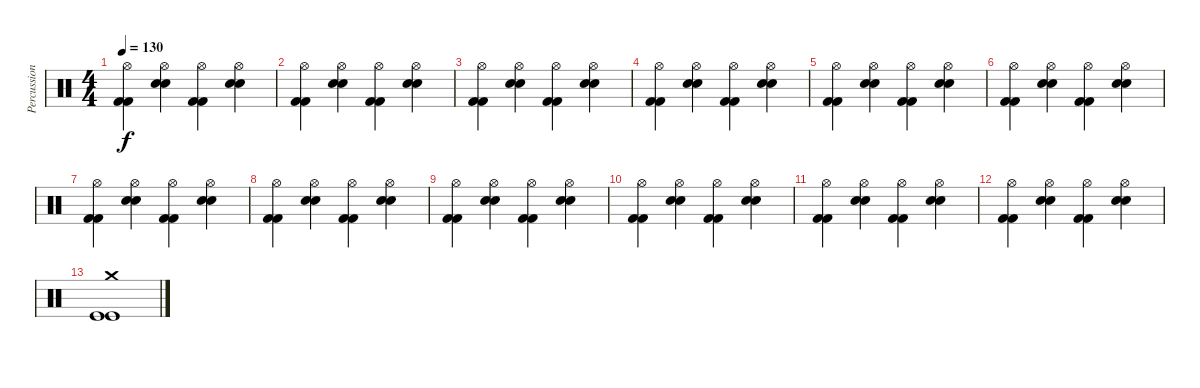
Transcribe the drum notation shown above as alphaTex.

\track ("Percussion" "Percussion") {instrument percussion}
\staff {score}
\articulation defaults
\ts (4 4)
\tempo 130
\clef neutral
\ks c
("Hi-Hat (open)" "Kick (hit) 2" "Kick (hit) 2").4{dy f} ("Hi-Hat (open)" "Snare (hit) 2" "Snare (hit) 2").4 ("Hi-Hat (open)" "Kick (hit) 2" "Kick (hit) 2").4 ("Hi-Hat (open)" "Snare (hit) 2" "Snare (hit) 2").4 |
("Hi-Hat (open)" "Kick (hit) 2" "Kick (hit) 2").4 ("Hi-Hat (open)" "Snare (hit) 2" "Snare (hit) 2").4 ("Hi-Hat (open)" "Kick (hit) 2" "Kick (hit) 2").4 ("Hi-Hat (open)" "Snare (hit) 2" "Snare (hit) 2").4 |
("Hi-Hat (open)" "Kick (hit) 2" "Kick (hit) 2").4 ("Hi-Hat (open)" "Snare (hit) 2" "Snare (hit) 2").4 ("Hi-Hat (open)" "Kick (hit) 2" "Kick (hit) 2").4 ("Hi-Hat (open)" "Snare (hit) 2" "Snare (hit) 2").4 |
("Hi-Hat (open)" "Kick (hit) 2" "Kick (hit) 2").4 ("Hi-Hat (open)" "Snare (hit) 2" "Snare (hit) 2").4 ("Hi-Hat (open)" "Kick (hit) 2" "Kick (hit) 2").4 ("Hi-Hat (open)" "Snare (hit) 2" "Snare (hit) 2").4 |
("Hi-Hat (open)" "Kick (hit) 2" "Kick (hit) 2").4 ("Hi-Hat (open)" "Snare (hit) 2" "Snare (hit) 2").4 ("Hi-Hat (open)" "Kick (hit) 2" "Kick (hit) 2").4 ("Hi-Hat (open)" "Snare (hit) 2" "Snare (hit) 2").4 |
("Hi-Hat (open)" "Kick (hit) 2" "Kick (hit) 2").4 ("Hi-Hat (open)" "Snare (hit) 2" "Snare (hit) 2").4 ("Hi-Hat (open)" "Kick (hit) 2" "Kick (hit) 2").4 ("Hi-Hat (open)" "Snare (hit) 2" "Snare (hit) 2").4 |
("Hi-Hat (open)" "Kick (hit) 2" "Kick (hit) 2").4 ("Hi-Hat (open)" "Snare (hit) 2" "Snare (hit) 2").4 ("Hi-Hat (open)" "Kick (hit) 2" "Kick (hit) 2").4 ("Hi-Hat (open)" "Snare (hit) 2" "Snare (hit) 2").4 |
("Hi-Hat (open)" "Kick (hit) 2" "Kick (hit) 2").4 ("Hi-Hat (open)" "Snare (hit) 2" "Snare (hit) 2").4 ("Hi-Hat (open)" "Kick (hit) 2" "Kick (hit) 2").4 ("Hi-Hat (open)" "Snare (hit) 2" "Snare (hit) 2").4 |
("Hi-Hat (open)" "Kick (hit) 2" "Kick (hit) 2").4 ("Hi-Hat (open)" "Snare (hit) 2" "Snare (hit) 2").4 ("Hi-Hat (open)" "Kick (hit) 2" "Kick (hit) 2").4 ("Hi-Hat (open)" "Snare (hit) 2" "Snare (hit) 2").4 |
("Hi-Hat (open)" "Kick (hit) 2" "Kick (hit) 2").4 ("Hi-Hat (open)" "Snare (hit) 2" "Snare (hit) 2").4 ("Hi-Hat (open)" "Kick (hit) 2" "Kick (hit) 2").4 ("Hi-Hat (open)" "Snare (hit) 2" "Snare (hit) 2").4 |
("Hi-Hat (open)" "Kick (hit) 2" "Kick (hit) 2").4 ("Hi-Hat (open)" "Snare (hit) 2" "Snare (hit) 2").4 ("Hi-Hat (open)" "Kick (hit) 2" "Kick (hit) 2").4 ("Hi-Hat (open)" "Snare (hit) 2" "Snare (hit) 2").4 |
("Hi-Hat (open)" "Kick (hit) 2" "Kick (hit) 2").4 ("Hi-Hat (open)" "Snare (hit) 2" "Snare (hit) 2").4 ("Hi-Hat (open)" "Kick (hit) 2" "Kick (hit) 2").4 ("Hi-Hat (open)" "Snare (hit) 2" "Snare (hit) 2").4 |
("Crash medium (hit)" "Kick (hit)" "Kick (hit)").1
